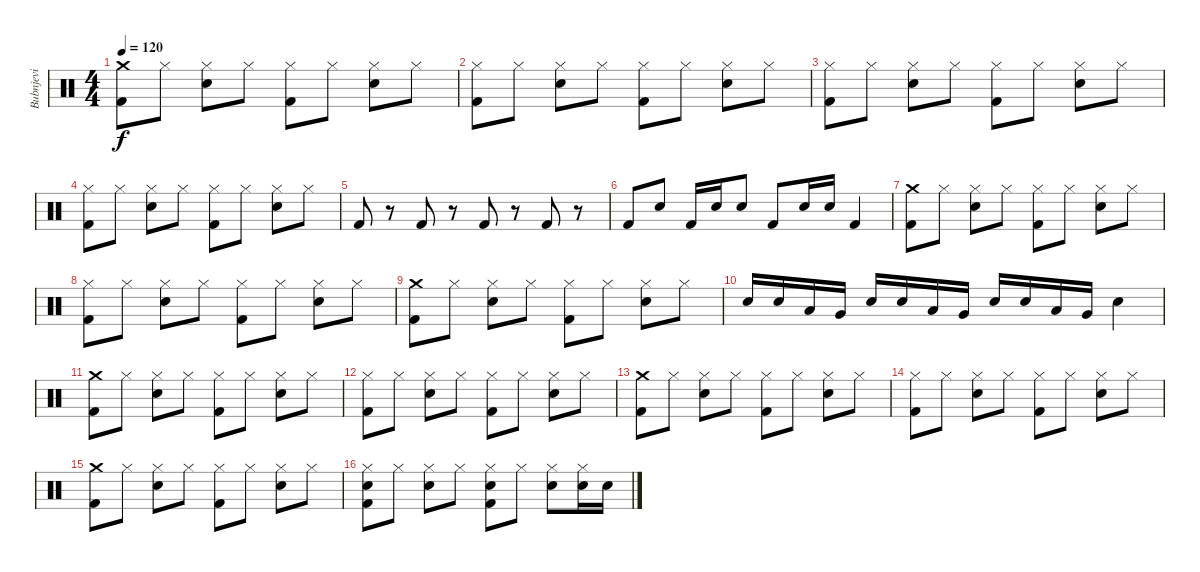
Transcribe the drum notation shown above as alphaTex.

\track ("Bubnjevi" "Bubnjevi") {instrument percussion}
\staff {score}
\articulation defaults
\ts (4 4)
\tempo 120
\clef neutral
\ks c
("Crash medium (hit)" "Kick (hit) 2").8{dy f} "Hi-Hat (closed)".8 ("Electric Snare (hit)" "Hi-Hat (closed)").8 "Hi-Hat (closed)".8 ("Hi-Hat (closed)" "Kick (hit) 2").8 "Hi-Hat (closed)".8 ("Electric Snare (hit)" "Hi-Hat (closed)").8 "Hi-Hat (closed)".8 |
("Hi-Hat (closed)" "Kick (hit) 2").8 "Hi-Hat (closed)".8 ("Electric Snare (hit)" "Hi-Hat (closed)").8 "Hi-Hat (closed)".8 ("Hi-Hat (closed)" "Kick (hit) 2").8 "Hi-Hat (closed)".8 ("Electric Snare (hit)" "Hi-Hat (closed)").8 "Hi-Hat (closed)".8 |
("Hi-Hat (closed)" "Kick (hit) 2").8 "Hi-Hat (closed)".8 ("Electric Snare (hit)" "Hi-Hat (closed)").8 "Hi-Hat (closed)".8 ("Hi-Hat (closed)" "Kick (hit) 2").8 "Hi-Hat (closed)".8 ("Electric Snare (hit)" "Hi-Hat (closed)").8 "Hi-Hat (closed)".8 |
("Hi-Hat (closed)" "Kick (hit) 2").8 "Hi-Hat (closed)".8 ("Electric Snare (hit)" "Hi-Hat (closed)").8 "Hi-Hat (closed)".8 ("Hi-Hat (closed)" "Kick (hit) 2").8 "Hi-Hat (closed)".8 ("Electric Snare (hit)" "Hi-Hat (closed)").8 "Hi-Hat (closed)".8 |
"Kick (hit) 2".8 r.8 "Kick (hit) 2".8 r.8 "Kick (hit) 2".8 r.8 "Kick (hit) 2".8 r.8 |
"Kick (hit) 2".8 "Electric Snare (hit)".8 "Kick (hit) 2".16 "Electric Snare (hit)".16 "Electric Snare (hit)".8 "Kick (hit) 2".8 "Electric Snare (hit)".16 "Electric Snare (hit)".16 "Kick (hit) 2".4 |
("Crash medium (hit)" "Kick (hit) 2").8 "Hi-Hat (closed)".8 ("Electric Snare (hit)" "Hi-Hat (closed)").8 "Hi-Hat (closed)".8 ("Hi-Hat (closed)" "Kick (hit) 2").8 "Hi-Hat (closed)".8 ("Electric Snare (hit)" "Hi-Hat (closed)").8 "Hi-Hat (closed)".8 |
("Hi-Hat (closed)" "Kick (hit) 2").8 "Hi-Hat (closed)".8 ("Electric Snare (hit)" "Hi-Hat (closed)").8 "Hi-Hat (closed)".8 ("Hi-Hat (closed)" "Kick (hit) 2").8 "Hi-Hat (closed)".8 ("Electric Snare (hit)" "Hi-Hat (closed)").8 "Hi-Hat (closed)".8 |
("Crash medium (hit)" "Kick (hit) 2").8 "Hi-Hat (closed)".8 ("Electric Snare (hit)" "Hi-Hat (closed)").8 "Hi-Hat (closed)".8 ("Hi-Hat (closed)" "Kick (hit) 2").8 "Hi-Hat (closed)".8 ("Electric Snare (hit)" "Hi-Hat (closed)").8 "Hi-Hat (closed)".8 |
"Electric Snare (hit)".16 "Electric Snare (hit)".16 "Low Tom (hit)".16 "Very Low Tom (hit)".16 "Electric Snare (hit)".16 "Electric Snare (hit)".16 "Low Tom (hit)".16 "Very Low Tom (hit)".16 "Electric Snare (hit)".16 "Electric Snare (hit)".16 "Low Tom (hit)".16 "Very Low Tom (hit)".16 "Electric Snare (hit)".4 |
("Crash medium (hit)" "Kick (hit) 2").8 "Hi-Hat (closed)".8 ("Electric Snare (hit)" "Hi-Hat (closed)").8 "Hi-Hat (closed)".8 ("Hi-Hat (closed)" "Kick (hit) 2").8 "Hi-Hat (closed)".8 ("Electric Snare (hit)" "Hi-Hat (closed)").8 "Hi-Hat (closed)".8 |
("Hi-Hat (closed)" "Kick (hit) 2").8 "Hi-Hat (closed)".8 ("Electric Snare (hit)" "Hi-Hat (closed)").8 "Hi-Hat (closed)".8 ("Hi-Hat (closed)" "Kick (hit) 2").8 "Hi-Hat (closed)".8 ("Electric Snare (hit)" "Hi-Hat (closed)").8 "Hi-Hat (closed)".8 |
("Crash medium (hit)" "Kick (hit) 2").8 "Hi-Hat (closed)".8 ("Electric Snare (hit)" "Hi-Hat (closed)").8 "Hi-Hat (closed)".8 ("Hi-Hat (closed)" "Kick (hit) 2").8 "Hi-Hat (closed)".8 ("Electric Snare (hit)" "Hi-Hat (closed)").8 "Hi-Hat (closed)".8 |
("Hi-Hat (closed)" "Kick (hit) 2").8 "Hi-Hat (closed)".8 ("Electric Snare (hit)" "Hi-Hat (closed)").8 "Hi-Hat (closed)".8 ("Hi-Hat (closed)" "Kick (hit) 2").8 "Hi-Hat (closed)".8 ("Electric Snare (hit)" "Hi-Hat (closed)").8 "Hi-Hat (closed)".8 |
("Crash medium (hit)" "Kick (hit) 2").8 "Hi-Hat (closed)".8 ("Electric Snare (hit)" "Hi-Hat (closed)").8 "Hi-Hat (closed)".8 ("Hi-Hat (closed)" "Kick (hit) 2").8 "Hi-Hat (closed)".8 ("Electric Snare (hit)" "Hi-Hat (closed)").8 "Hi-Hat (closed)".8 |
("Electric Snare (hit)" "Hi-Hat (closed)" "Kick (hit) 2").8 "Hi-Hat (closed)".8 ("Electric Snare (hit)" "Hi-Hat (closed)").8 "Hi-Hat (closed)".8 ("Electric Snare (hit)" "Hi-Hat (closed)" "Kick (hit) 2").8 "Hi-Hat (closed)".8 ("Electric Snare (hit)" "Hi-Hat (closed)").8 ("Electric Snare (hit)" "Hi-Hat (closed)").16 "Electric Snare (hit)".16
